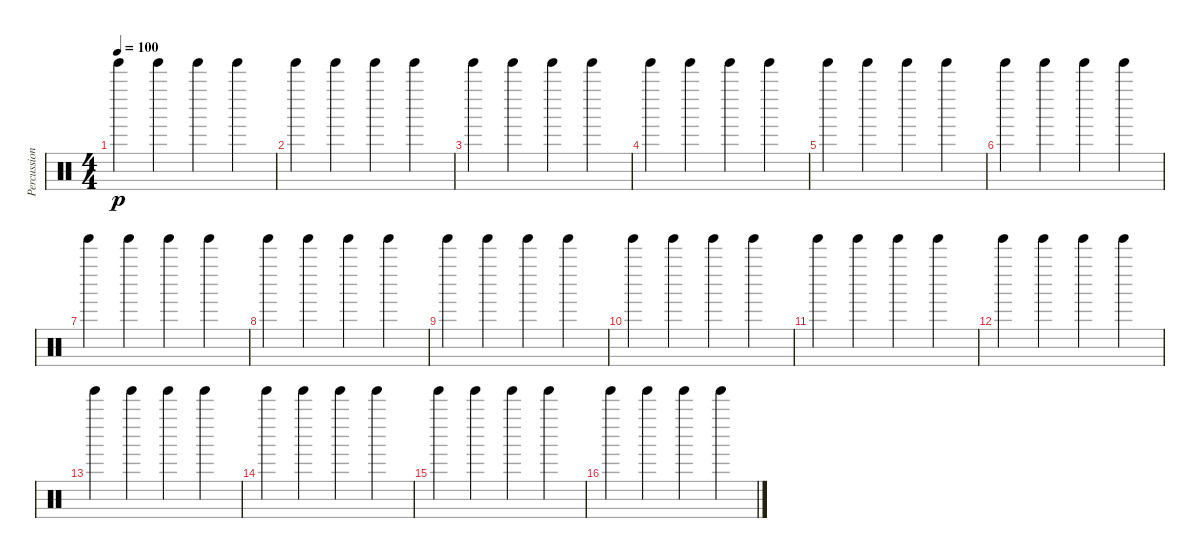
\track ("Percussion" "Percussion") {instrument percussion}
\staff {score}
\articulation defaults
\ts (4 4)
\tempo 100
\clef neutral
\ks c "Tinkle Bell (hit)".4{dy p} "Tinkle Bell (hit)".4 "Tinkle Bell (hit)".4 "Tinkle Bell (hit)".4
|
"Tinkle Bell (hit)".4 "Tinkle Bell (hit)".4 "Tinkle Bell (hit)".4 "Tinkle Bell (hit)".4 |
"Tinkle Bell (hit)".4 "Tinkle Bell (hit)".4 "Tinkle Bell (hit)".4 "Tinkle Bell (hit)".4 |
"Tinkle Bell (hit)".4 "Tinkle Bell (hit)".4 "Tinkle Bell (hit)".4 "Tinkle Bell (hit)".4 |
"Tinkle Bell (hit)".4 "Tinkle Bell (hit)".4 "Tinkle Bell (hit)".4 "Tinkle Bell (hit)".4 |
"Tinkle Bell (hit)".4 "Tinkle Bell (hit)".4 "Tinkle Bell (hit)".4 "Tinkle Bell (hit)".4 |
"Tinkle Bell (hit)".4 "Tinkle Bell (hit)".4 "Tinkle Bell (hit)".4 "Tinkle Bell (hit)".4 |
"Tinkle Bell (hit)".4 "Tinkle Bell (hit)".4 "Tinkle Bell (hit)".4 "Tinkle Bell (hit)".4 |
"Tinkle Bell (hit)".4 "Tinkle Bell (hit)".4 "Tinkle Bell (hit)".4 "Tinkle Bell (hit)".4 |
"Tinkle Bell (hit)".4 "Tinkle Bell (hit)".4 "Tinkle Bell (hit)".4 "Tinkle Bell (hit)".4 |
"Tinkle Bell (hit)".4 "Tinkle Bell (hit)".4 "Tinkle Bell (hit)".4 "Tinkle Bell (hit)".4 |
"Tinkle Bell (hit)".4 "Tinkle Bell (hit)".4 "Tinkle Bell (hit)".4 "Tinkle Bell (hit)".4 |
"Tinkle Bell (hit)".4 "Tinkle Bell (hit)".4 "Tinkle Bell (hit)".4 "Tinkle Bell (hit)".4 |
"Tinkle Bell (hit)".4 "Tinkle Bell (hit)".4 "Tinkle Bell (hit)".4 "Tinkle Bell (hit)".4 |
"Tinkle Bell (hit)".4 "Tinkle Bell (hit)".4 "Tinkle Bell (hit)".4 "Tinkle Bell (hit)".4 |
"Tinkle Bell (hit)".4 "Tinkle Bell (hit)".4 "Tinkle Bell (hit)".4 "Tinkle Bell (hit)".4
